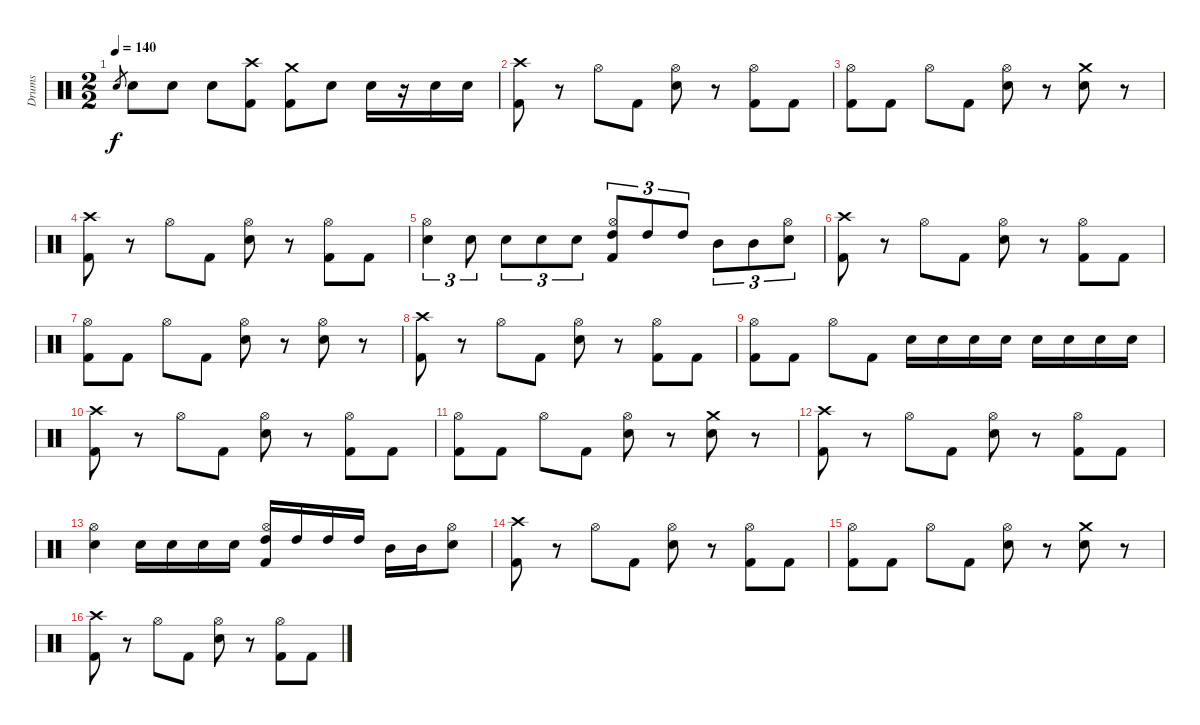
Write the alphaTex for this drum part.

\track ("Drums" "Drums") {instrument percussion}
\staff {score}
\articulation defaults
\ts (2 2)
\tempo 140
\clef neutral
\ks c "Snare (hit) 2".8{gr dy f} "Snare (hit) 2".8 "Snare (hit) 2".8 "Snare (hit) 2".8
("Crash high (hit)" "Kick (hit) 2").8 ("Crash medium (hit)" "Kick (hit) 2").8 "Snare (hit) 2".8 "Snare (hit) 2".16 r.16 "Snare (hit) 2".16 "Snare (hit) 2".16 |
("Crash high (hit)" "Kick (hit) 2").8 r.8 "Hi-Hat (open)".8 "Kick (hit) 2".8 ("Hi-Hat (open)" "Snare (hit) 2").8 r.8 ("Hi-Hat (open)" "Kick (hit) 2").8 "Kick (hit) 2".8 |
("Hi-Hat (open)" "Kick (hit) 2").8 "Kick (hit) 2".8 "Hi-Hat (open)".8 "Kick (hit) 2".8 ("Hi-Hat (open)" "Snare (hit) 2").8 r.8 ("Crash medium (hit)" "Snare (hit) 2").8 r.8 |
("Crash high (hit)" "Kick (hit) 2").8 r.8 "Hi-Hat (open)".8 "Kick (hit) 2".8 ("Hi-Hat (open)" "Snare (hit) 2").8 r.8 ("Hi-Hat (open)" "Kick (hit) 2").8 "Kick (hit) 2".8 |
("Hi-Hat (open)" "Snare (hit) 2").4{tu (3 2)} "Snare (hit) 2".8{tu (3 2)} "Snare (hit) 2".8{tu (3 2)} "Snare (hit) 2".8{tu (3 2)} "Snare (hit) 2".8{tu (3 2)} ("Hi-Hat (open)" "High Tom (hit)" "Kick (hit) 2").8{tu (3 2)} "High Tom (hit)".8{tu (3 2)} "High Tom (hit)".8{tu (3 2)} "Mid Tom (hit)".8{tu (3 2)} "Mid Tom (hit)".8{tu (3 2)} ("Hi-Hat (open)" "Snare (hit) 2").8{tu (3 2)} |
("Crash high (hit)" "Kick (hit) 2").8 r.8 "Hi-Hat (open)".8 "Kick (hit) 2".8 ("Hi-Hat (open)" "Snare (hit) 2").8 r.8 ("Hi-Hat (open)" "Kick (hit) 2").8 "Kick (hit) 2".8 |
("Hi-Hat (open)" "Kick (hit) 2").8 "Kick (hit) 2".8 "Hi-Hat (open)".8 "Kick (hit) 2".8 ("Hi-Hat (open)" "Snare (hit) 2").8 r.8 ("Hi-Hat (open)" "Snare (hit) 2").8 r.8 |
("Crash high (hit)" "Kick (hit) 2").8 r.8 "Hi-Hat (open)".8 "Kick (hit) 2".8 ("Hi-Hat (open)" "Snare (hit) 2").8 r.8 ("Hi-Hat (open)" "Kick (hit) 2").8 "Kick (hit) 2".8 |
("Hi-Hat (open)" "Kick (hit) 2").8 "Kick (hit) 2".8 "Hi-Hat (open)".8 "Kick (hit) 2".8 "Snare (hit) 2".16 "Snare (hit) 2".16 "Snare (hit) 2".16 "Snare (hit) 2".16 "Snare (hit) 2".16 "Snare (hit) 2".16 "Snare (hit) 2".16 "Snare (hit) 2".16 |
("Crash high (hit)" "Kick (hit) 2").8 r.8 "Hi-Hat (open)".8 "Kick (hit) 2".8 ("Hi-Hat (open)" "Snare (hit) 2").8 r.8 ("Hi-Hat (open)" "Kick (hit) 2").8 "Kick (hit) 2".8 |
("Hi-Hat (open)" "Kick (hit) 2").8 "Kick (hit) 2".8 "Hi-Hat (open)".8 "Kick (hit) 2".8 ("Hi-Hat (open)" "Snare (hit) 2").8 r.8 ("Crash medium (hit)" "Snare (hit) 2").8 r.8 |
("Crash high (hit)" "Kick (hit) 2").8{volume 0} r.8 "Hi-Hat (open)".8 "Kick (hit) 2".8 ("Hi-Hat (open)" "Snare (hit) 2").8 r.8 ("Hi-Hat (open)" "Kick (hit) 2").8 "Kick (hit) 2".8 |
("Hi-Hat (open)" "Snare (hit) 2").4 "Snare (hit) 2".16 "Snare (hit) 2".16 "Snare (hit) 2".16 "Snare (hit) 2".16 ("Hi-Hat (open)" "High Tom (hit)" "Kick (hit) 2").16 "High Tom (hit)".16 "High Tom (hit)".16 "High Tom (hit)".16 "Mid Tom (hit)".16 "Mid Tom (hit)".16 ("Hi-Hat (open)" "Snare (hit) 2").8 |
("Crash high (hit)" "Kick (hit) 2").8 r.8 "Hi-Hat (open)".8 "Kick (hit) 2".8 ("Hi-Hat (open)" "Snare (hit) 2").8 r.8 ("Hi-Hat (open)" "Kick (hit) 2").8 "Kick (hit) 2".8 |
("Hi-Hat (open)" "Kick (hit) 2").8 "Kick (hit) 2".8 "Hi-Hat (open)".8 "Kick (hit) 2".8 ("Hi-Hat (open)" "Snare (hit) 2").8 r.8 ("Crash medium (hit)" "Snare (hit) 2").8 r.8 |
("Crash high (hit)" "Kick (hit) 2").8 r.8 "Hi-Hat (open)".8 "Kick (hit) 2".8 ("Hi-Hat (open)" "Snare (hit) 2").8 r.8 ("Hi-Hat (open)" "Kick (hit) 2").8 "Kick (hit) 2".8
